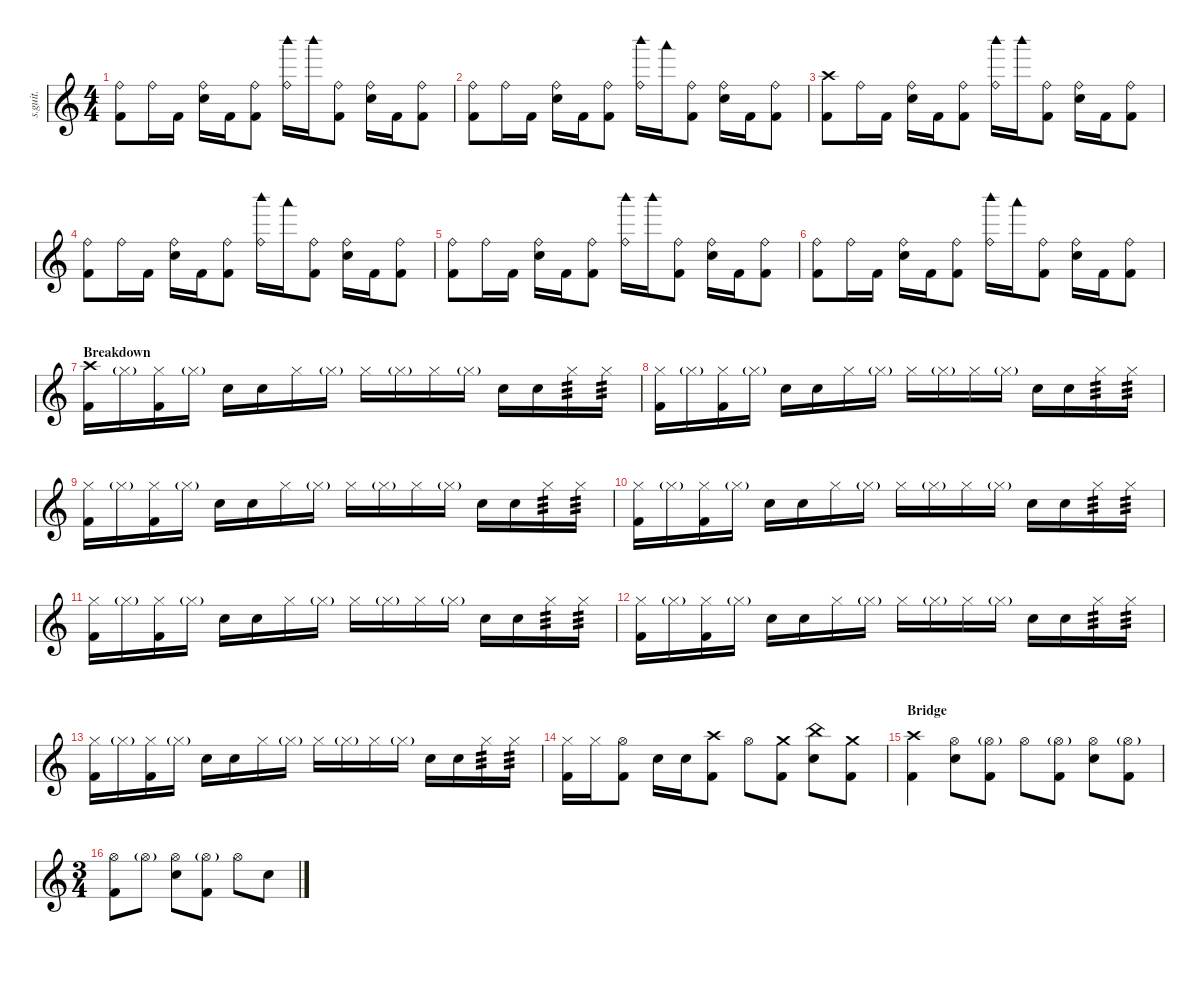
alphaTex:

\defaultSystemsLayout 4
\hideDynamics
\bracketExtendMode nobrackets
\track ("Mike Wengren" "s.guit.") {instrument percussion}
\staff {score}
\articulation defaults
\ts (4 4)
\tempo (90 hide)
\clef g2
\ks c
("Ride (bell)" "Kick (hit) 2").8{lyrics (0 "") lyrics (1 "") lyrics (2 "") lyrics (3 "") lyrics (4 "") dy ff} "Ride (bell)".16{lyrics (0 "") lyrics (1 "") lyrics (2 "") lyrics (3 "") lyrics (4 "")} "Kick (hit) 2".16{lyrics (0 "") lyrics (1 "") lyrics (2 "") lyrics (3 "") lyrics (4 "")} ("Ride (bell)" "Snare (hit) 2").16{lyrics (0 "") lyrics (1 "") lyrics (2 "") lyrics (3 "") lyrics (4 "")} "Kick (hit) 2".16{lyrics (0 "") lyrics (1 "") lyrics (2 "") lyrics (3 "") lyrics (4 "")} ("Ride (bell)" "Kick (hit) 2").8{lyrics (0 "") lyrics (1 "") lyrics (2 "") lyrics (3 "") lyrics (4 "")} ("Woodblock high (hit)" "Ride (bell)").16{lyrics (0 "") lyrics (1 "") lyrics (2 "") lyrics (3 "") lyrics (4 "")} "Woodblock high (hit)".16{lyrics (0 "") lyrics (1 "") lyrics (2 "") lyrics (3 "") lyrics (4 "")} ("Ride (bell)" "Kick (hit) 2").8{lyrics (0 "") lyrics (1 "") lyrics (2 "") lyrics (3 "") lyrics (4 "")} ("Ride (bell)" "Snare (hit) 2").16{lyrics (0 "") lyrics (1 "") lyrics (2 "") lyrics (3 "") lyrics (4 "")} "Kick (hit) 2".16{lyrics (0 "") lyrics (1 "") lyrics (2 "") lyrics (3 "") lyrics (4 "")} ("Ride (bell)" "Kick (hit) 2").8{lyrics (0 "") lyrics (1 "") lyrics (2 "") lyrics (3 "") lyrics (4 "")} |
("Ride (bell)" "Kick (hit) 2").8{lyrics (0 "") lyrics (1 "") lyrics (2 "") lyrics (3 "") lyrics (4 "")} "Ride (bell)".16{lyrics (0 "") lyrics (1 "") lyrics (2 "") lyrics (3 "") lyrics (4 "")} "Kick (hit) 2".16{lyrics (0 "") lyrics (1 "") lyrics (2 "") lyrics (3 "") lyrics (4 "")} ("Ride (bell)" "Snare (hit) 2").16{lyrics (0 "") lyrics (1 "") lyrics (2 "") lyrics (3 "") lyrics (4 "")} "Kick (hit) 2".16{lyrics (0 "") lyrics (1 "") lyrics (2 "") lyrics (3 "") lyrics (4 "")} ("Ride (bell)" "Kick (hit) 2").8{lyrics (0 "") lyrics (1 "") lyrics (2 "") lyrics (3 "") lyrics (4 "")} ("Woodblock high (hit)" "Ride (bell)").16{lyrics (0 "") lyrics (1 "") lyrics (2 "") lyrics (3 "") lyrics (4 "")} "Woodblock low (hit)".16{lyrics (0 "") lyrics (1 "") lyrics (2 "") lyrics (3 "") lyrics (4 "")} ("Ride (bell)" "Kick (hit) 2").8{lyrics (0 "") lyrics (1 "") lyrics (2 "") lyrics (3 "") lyrics (4 "")} ("Ride (bell)" "Snare (hit) 2").16{lyrics (0 "") lyrics (1 "") lyrics (2 "") lyrics (3 "") lyrics (4 "")} "Kick (hit) 2".16{lyrics (0 "") lyrics (1 "") lyrics (2 "") lyrics (3 "") lyrics (4 "")} ("Ride (bell)" "Kick (hit) 2").8{lyrics (0 "") lyrics (1 "") lyrics (2 "") lyrics (3 "") lyrics (4 "")} |
("Crash high (hit)" "Kick (hit) 2").8{lyrics (0 "") lyrics (1 "") lyrics (2 "") lyrics (3 "") lyrics (4 "")} "Ride (bell)".16{lyrics (0 "") lyrics (1 "") lyrics (2 "") lyrics (3 "") lyrics (4 "")} "Kick (hit) 2".16{lyrics (0 "") lyrics (1 "") lyrics (2 "") lyrics (3 "") lyrics (4 "")} ("Ride (bell)" "Snare (hit) 2").16{lyrics (0 "") lyrics (1 "") lyrics (2 "") lyrics (3 "") lyrics (4 "")} "Kick (hit) 2".16{lyrics (0 "") lyrics (1 "") lyrics (2 "") lyrics (3 "") lyrics (4 "")} ("Ride (bell)" "Kick (hit) 2").8{lyrics (0 "") lyrics (1 "") lyrics (2 "") lyrics (3 "") lyrics (4 "")} ("Woodblock high (hit)" "Ride (bell)").16{lyrics (0 "") lyrics (1 "") lyrics (2 "") lyrics (3 "") lyrics (4 "")} "Woodblock high (hit)".16{lyrics (0 "") lyrics (1 "") lyrics (2 "") lyrics (3 "") lyrics (4 "")} ("Ride (bell)" "Kick (hit) 2").8{lyrics (0 "") lyrics (1 "") lyrics (2 "") lyrics (3 "") lyrics (4 "")} ("Ride (bell)" "Snare (hit) 2").16{lyrics (0 "") lyrics (1 "") lyrics (2 "") lyrics (3 "") lyrics (4 "")} "Kick (hit) 2".16{lyrics (0 "") lyrics (1 "") lyrics (2 "") lyrics (3 "") lyrics (4 "")} ("Ride (bell)" "Kick (hit) 2").8{lyrics (0 "") lyrics (1 "") lyrics (2 "") lyrics (3 "") lyrics (4 "")} |
("Ride (bell)" "Kick (hit) 2").8{lyrics (0 "") lyrics (1 "") lyrics (2 "") lyrics (3 "") lyrics (4 "")} "Ride (bell)".16{lyrics (0 "") lyrics (1 "") lyrics (2 "") lyrics (3 "") lyrics (4 "")} "Kick (hit) 2".16{lyrics (0 "") lyrics (1 "") lyrics (2 "") lyrics (3 "") lyrics (4 "")} ("Ride (bell)" "Snare (hit) 2").16{lyrics (0 "") lyrics (1 "") lyrics (2 "") lyrics (3 "") lyrics (4 "")} "Kick (hit) 2".16{lyrics (0 "") lyrics (1 "") lyrics (2 "") lyrics (3 "") lyrics (4 "")} ("Ride (bell)" "Kick (hit) 2").8{lyrics (0 "") lyrics (1 "") lyrics (2 "") lyrics (3 "") lyrics (4 "")} ("Woodblock high (hit)" "Ride (bell)").16{lyrics (0 "") lyrics (1 "") lyrics (2 "") lyrics (3 "") lyrics (4 "")} "Woodblock low (hit)".16{lyrics (0 "") lyrics (1 "") lyrics (2 "") lyrics (3 "") lyrics (4 "")} ("Ride (bell)" "Kick (hit) 2").8{lyrics (0 "") lyrics (1 "") lyrics (2 "") lyrics (3 "") lyrics (4 "")} ("Ride (bell)" "Snare (hit) 2").16{lyrics (0 "") lyrics (1 "") lyrics (2 "") lyrics (3 "") lyrics (4 "")} "Kick (hit) 2".16{lyrics (0 "") lyrics (1 "") lyrics (2 "") lyrics (3 "") lyrics (4 "")} ("Ride (bell)" "Kick (hit) 2").8{lyrics (0 "") lyrics (1 "") lyrics (2 "") lyrics (3 "") lyrics (4 "")} |
("Ride (bell)" "Kick (hit) 2").8{lyrics (0 "") lyrics (1 "") lyrics (2 "") lyrics (3 "") lyrics (4 "")} "Ride (bell)".16{lyrics (0 "") lyrics (1 "") lyrics (2 "") lyrics (3 "") lyrics (4 "")} "Kick (hit) 2".16{lyrics (0 "") lyrics (1 "") lyrics (2 "") lyrics (3 "") lyrics (4 "")} ("Ride (bell)" "Snare (hit) 2").16{lyrics (0 "") lyrics (1 "") lyrics (2 "") lyrics (3 "") lyrics (4 "")} "Kick (hit) 2".16{lyrics (0 "") lyrics (1 "") lyrics (2 "") lyrics (3 "") lyrics (4 "")} ("Ride (bell)" "Kick (hit) 2").8{lyrics (0 "") lyrics (1 "") lyrics (2 "") lyrics (3 "") lyrics (4 "")} ("Woodblock high (hit)" "Ride (bell)").16{lyrics (0 "") lyrics (1 "") lyrics (2 "") lyrics (3 "") lyrics (4 "")} "Woodblock high (hit)".16{lyrics (0 "") lyrics (1 "") lyrics (2 "") lyrics (3 "") lyrics (4 "")} ("Ride (bell)" "Kick (hit) 2").8{lyrics (0 "") lyrics (1 "") lyrics (2 "") lyrics (3 "") lyrics (4 "")} ("Ride (bell)" "Snare (hit) 2").16{lyrics (0 "") lyrics (1 "") lyrics (2 "") lyrics (3 "") lyrics (4 "")} "Kick (hit) 2".16{lyrics (0 "") lyrics (1 "") lyrics (2 "") lyrics (3 "") lyrics (4 "")} ("Ride (bell)" "Kick (hit) 2").8{lyrics (0 "") lyrics (1 "") lyrics (2 "") lyrics (3 "") lyrics (4 "")} |
("Ride (bell)" "Kick (hit) 2").8{lyrics (0 "") lyrics (1 "") lyrics (2 "") lyrics (3 "") lyrics (4 "")} "Ride (bell)".16{lyrics (0 "") lyrics (1 "") lyrics (2 "") lyrics (3 "") lyrics (4 "")} "Kick (hit) 2".16{lyrics (0 "") lyrics (1 "") lyrics (2 "") lyrics (3 "") lyrics (4 "")} ("Ride (bell)" "Snare (hit) 2").16{lyrics (0 "") lyrics (1 "") lyrics (2 "") lyrics (3 "") lyrics (4 "")} "Kick (hit) 2".16{lyrics (0 "") lyrics (1 "") lyrics (2 "") lyrics (3 "") lyrics (4 "")} ("Ride (bell)" "Kick (hit) 2").8{lyrics (0 "") lyrics (1 "") lyrics (2 "") lyrics (3 "") lyrics (4 "")} ("Woodblock high (hit)" "Ride (bell)").16{lyrics (0 "") lyrics (1 "") lyrics (2 "") lyrics (3 "") lyrics (4 "")} "Woodblock low (hit)".16{lyrics (0 "") lyrics (1 "") lyrics (2 "") lyrics (3 "") lyrics (4 "")} ("Ride (bell)" "Kick (hit) 2").8{lyrics (0 "") lyrics (1 "") lyrics (2 "") lyrics (3 "") lyrics (4 "")} ("Ride (bell)" "Snare (hit) 2").16{lyrics (0 "") lyrics (1 "") lyrics (2 "") lyrics (3 "") lyrics (4 "")} "Kick (hit) 2".16{lyrics (0 "") lyrics (1 "") lyrics (2 "") lyrics (3 "") lyrics (4 "")} ("Ride (bell)" "Kick (hit) 2").8{lyrics (0 "") lyrics (1 "") lyrics (2 "") lyrics (3 "") lyrics (4 "")} |
\section ("" "Breakdown")
("Crash high (hit)" "Kick (hit) 2").16{lyrics (0 "") lyrics (1 "") lyrics (2 "") lyrics (3 "") lyrics (4 "")} "Hi-Hat (closed)"{g}.16{lyrics (0 "") lyrics (1 "") lyrics (2 "") lyrics (3 "") lyrics (4 "")} ("Hi-Hat (closed)" "Kick (hit) 2").16{lyrics (0 "") lyrics (1 "") lyrics (2 "") lyrics (3 "") lyrics (4 "")} "Hi-Hat (closed)"{g}.16{lyrics (0 "") lyrics (1 "") lyrics (2 "") lyrics (3 "") lyrics (4 "")} "Snare (hit) 2".16{lyrics (0 "") lyrics (1 "") lyrics (2 "") lyrics (3 "") lyrics (4 "")} "Snare (hit) 2".16{lyrics (0 "") lyrics (1 "") lyrics (2 "") lyrics (3 "") lyrics (4 "")} "Hi-Hat (closed)".16{lyrics (0 "") lyrics (1 "") lyrics (2 "") lyrics (3 "") lyrics (4 "")} "Hi-Hat (closed)"{g}.16{lyrics (0 "") lyrics (1 "") lyrics (2 "") lyrics (3 "") lyrics (4 "")} "Hi-Hat (closed)".16{lyrics (0 "") lyrics (1 "") lyrics (2 "") lyrics (3 "") lyrics (4 "")} "Hi-Hat (closed)"{g}.16{lyrics (0 "") lyrics (1 "") lyrics (2 "") lyrics (3 "") lyrics (4 "")} "Hi-Hat (closed)".16{lyrics (0 "") lyrics (1 "") lyrics (2 "") lyrics (3 "") lyrics (4 "")} "Hi-Hat (closed)"{g}.16{lyrics (0 "") lyrics (1 "") lyrics (2 "") lyrics (3 "") lyrics (4 "")} "Snare (hit) 2".16{lyrics (0 "") lyrics (1 "") lyrics (2 "") lyrics (3 "") lyrics (4 "")} "Snare (hit) 2".16{lyrics (0 "") lyrics (1 "") lyrics (2 "") lyrics (3 "") lyrics (4 "")} "Hi-Hat (closed)".16{lyrics (0 "") lyrics (1 "") lyrics (2 "") lyrics (3 "") lyrics (4 "") tp 3} "Hi-Hat (closed)".16{lyrics (0 "") lyrics (1 "") lyrics (2 "") lyrics (3 "") lyrics (4 "") tp 3} |
("Kick (hit) 2" "Hi-Hat (closed)").16{lyrics (0 "") lyrics (1 "") lyrics (2 "") lyrics (3 "") lyrics (4 "")} "Hi-Hat (closed)"{g}.16{lyrics (0 "") lyrics (1 "") lyrics (2 "") lyrics (3 "") lyrics (4 "")} ("Hi-Hat (closed)" "Kick (hit) 2").16{lyrics (0 "") lyrics (1 "") lyrics (2 "") lyrics (3 "") lyrics (4 "")} "Hi-Hat (closed)"{g}.16{lyrics (0 "") lyrics (1 "") lyrics (2 "") lyrics (3 "") lyrics (4 "")} "Snare (hit) 2".16{lyrics (0 "") lyrics (1 "") lyrics (2 "") lyrics (3 "") lyrics (4 "")} "Snare (hit) 2".16{lyrics (0 "") lyrics (1 "") lyrics (2 "") lyrics (3 "") lyrics (4 "")} "Hi-Hat (closed)".16{lyrics (0 "") lyrics (1 "") lyrics (2 "") lyrics (3 "") lyrics (4 "")} "Hi-Hat (closed)"{g}.16{lyrics (0 "") lyrics (1 "") lyrics (2 "") lyrics (3 "") lyrics (4 "")} "Hi-Hat (closed)".16{lyrics (0 "") lyrics (1 "") lyrics (2 "") lyrics (3 "") lyrics (4 "")} "Hi-Hat (closed)"{g}.16{lyrics (0 "") lyrics (1 "") lyrics (2 "") lyrics (3 "") lyrics (4 "")} "Hi-Hat (closed)".16{lyrics (0 "") lyrics (1 "") lyrics (2 "") lyrics (3 "") lyrics (4 "")} "Hi-Hat (closed)"{g}.16{lyrics (0 "") lyrics (1 "") lyrics (2 "") lyrics (3 "") lyrics (4 "")} "Snare (hit) 2".16{lyrics (0 "") lyrics (1 "") lyrics (2 "") lyrics (3 "") lyrics (4 "")} "Snare (hit) 2".16{lyrics (0 "") lyrics (1 "") lyrics (2 "") lyrics (3 "") lyrics (4 "")} "Hi-Hat (closed)".16{lyrics (0 "") lyrics (1 "") lyrics (2 "") lyrics (3 "") lyrics (4 "") tp 3} "Hi-Hat (closed)".16{lyrics (0 "") lyrics (1 "") lyrics (2 "") lyrics (3 "") lyrics (4 "") tp 3} |
("Kick (hit) 2" "Hi-Hat (closed)").16{lyrics (0 "") lyrics (1 "") lyrics (2 "") lyrics (3 "") lyrics (4 "")} "Hi-Hat (closed)"{g}.16{lyrics (0 "") lyrics (1 "") lyrics (2 "") lyrics (3 "") lyrics (4 "")} ("Hi-Hat (closed)" "Kick (hit) 2").16{lyrics (0 "") lyrics (1 "") lyrics (2 "") lyrics (3 "") lyrics (4 "")} "Hi-Hat (closed)"{g}.16{lyrics (0 "") lyrics (1 "") lyrics (2 "") lyrics (3 "") lyrics (4 "")} "Snare (hit) 2".16{lyrics (0 "") lyrics (1 "") lyrics (2 "") lyrics (3 "") lyrics (4 "")} "Snare (hit) 2".16{lyrics (0 "") lyrics (1 "") lyrics (2 "") lyrics (3 "") lyrics (4 "")} "Hi-Hat (closed)".16{lyrics (0 "") lyrics (1 "") lyrics (2 "") lyrics (3 "") lyrics (4 "")} "Hi-Hat (closed)"{g}.16{lyrics (0 "") lyrics (1 "") lyrics (2 "") lyrics (3 "") lyrics (4 "")} "Hi-Hat (closed)".16{lyrics (0 "") lyrics (1 "") lyrics (2 "") lyrics (3 "") lyrics (4 "")} "Hi-Hat (closed)"{g}.16{lyrics (0 "") lyrics (1 "") lyrics (2 "") lyrics (3 "") lyrics (4 "")} "Hi-Hat (closed)".16{lyrics (0 "") lyrics (1 "") lyrics (2 "") lyrics (3 "") lyrics (4 "")} "Hi-Hat (closed)"{g}.16{lyrics (0 "") lyrics (1 "") lyrics (2 "") lyrics (3 "") lyrics (4 "")} "Snare (hit) 2".16{lyrics (0 "") lyrics (1 "") lyrics (2 "") lyrics (3 "") lyrics (4 "")} "Snare (hit) 2".16{lyrics (0 "") lyrics (1 "") lyrics (2 "") lyrics (3 "") lyrics (4 "")} "Hi-Hat (closed)".16{lyrics (0 "") lyrics (1 "") lyrics (2 "") lyrics (3 "") lyrics (4 "") tp 3} "Hi-Hat (closed)".16{lyrics (0 "") lyrics (1 "") lyrics (2 "") lyrics (3 "") lyrics (4 "") tp 3} |
("Kick (hit) 2" "Hi-Hat (closed)").16{lyrics (0 "") lyrics (1 "") lyrics (2 "") lyrics (3 "") lyrics (4 "")} "Hi-Hat (closed)"{g}.16{lyrics (0 "") lyrics (1 "") lyrics (2 "") lyrics (3 "") lyrics (4 "")} ("Hi-Hat (closed)" "Kick (hit) 2").16{lyrics (0 "") lyrics (1 "") lyrics (2 "") lyrics (3 "") lyrics (4 "")} "Hi-Hat (closed)"{g}.16{lyrics (0 "") lyrics (1 "") lyrics (2 "") lyrics (3 "") lyrics (4 "")} "Snare (hit) 2".16{lyrics (0 "") lyrics (1 "") lyrics (2 "") lyrics (3 "") lyrics (4 "")} "Snare (hit) 2".16{lyrics (0 "") lyrics (1 "") lyrics (2 "") lyrics (3 "") lyrics (4 "")} "Hi-Hat (closed)".16{lyrics (0 "") lyrics (1 "") lyrics (2 "") lyrics (3 "") lyrics (4 "")} "Hi-Hat (closed)"{g}.16{lyrics (0 "") lyrics (1 "") lyrics (2 "") lyrics (3 "") lyrics (4 "")} "Hi-Hat (closed)".16{lyrics (0 "") lyrics (1 "") lyrics (2 "") lyrics (3 "") lyrics (4 "")} "Hi-Hat (closed)"{g}.16{lyrics (0 "") lyrics (1 "") lyrics (2 "") lyrics (3 "") lyrics (4 "")} "Hi-Hat (closed)".16{lyrics (0 "") lyrics (1 "") lyrics (2 "") lyrics (3 "") lyrics (4 "")} "Hi-Hat (closed)"{g}.16{lyrics (0 "") lyrics (1 "") lyrics (2 "") lyrics (3 "") lyrics (4 "")} "Snare (hit) 2".16{lyrics (0 "") lyrics (1 "") lyrics (2 "") lyrics (3 "") lyrics (4 "")} "Snare (hit) 2".16{lyrics (0 "") lyrics (1 "") lyrics (2 "") lyrics (3 "") lyrics (4 "")} "Hi-Hat (closed)".16{lyrics (0 "") lyrics (1 "") lyrics (2 "") lyrics (3 "") lyrics (4 "") tp 3} "Hi-Hat (closed)".16{lyrics (0 "") lyrics (1 "") lyrics (2 "") lyrics (3 "") lyrics (4 "") tp 3} |
("Kick (hit) 2" "Hi-Hat (closed)").16{lyrics (0 "") lyrics (1 "") lyrics (2 "") lyrics (3 "") lyrics (4 "")} "Hi-Hat (closed)"{g}.16{lyrics (0 "") lyrics (1 "") lyrics (2 "") lyrics (3 "") lyrics (4 "")} ("Hi-Hat (closed)" "Kick (hit) 2").16{lyrics (0 "") lyrics (1 "") lyrics (2 "") lyrics (3 "") lyrics (4 "")} "Hi-Hat (closed)"{g}.16{lyrics (0 "") lyrics (1 "") lyrics (2 "") lyrics (3 "") lyrics (4 "")} "Snare (hit) 2".16{lyrics (0 "") lyrics (1 "") lyrics (2 "") lyrics (3 "") lyrics (4 "")} "Snare (hit) 2".16{lyrics (0 "") lyrics (1 "") lyrics (2 "") lyrics (3 "") lyrics (4 "")} "Hi-Hat (closed)".16{lyrics (0 "") lyrics (1 "") lyrics (2 "") lyrics (3 "") lyrics (4 "")} "Hi-Hat (closed)"{g}.16{lyrics (0 "") lyrics (1 "") lyrics (2 "") lyrics (3 "") lyrics (4 "")} "Hi-Hat (closed)".16{lyrics (0 "") lyrics (1 "") lyrics (2 "") lyrics (3 "") lyrics (4 "")} "Hi-Hat (closed)"{g}.16{lyrics (0 "") lyrics (1 "") lyrics (2 "") lyrics (3 "") lyrics (4 "")} "Hi-Hat (closed)".16{lyrics (0 "") lyrics (1 "") lyrics (2 "") lyrics (3 "") lyrics (4 "")} "Hi-Hat (closed)"{g}.16{lyrics (0 "") lyrics (1 "") lyrics (2 "") lyrics (3 "") lyrics (4 "")} "Snare (hit) 2".16{lyrics (0 "") lyrics (1 "") lyrics (2 "") lyrics (3 "") lyrics (4 "")} "Snare (hit) 2".16{lyrics (0 "") lyrics (1 "") lyrics (2 "") lyrics (3 "") lyrics (4 "")} "Hi-Hat (closed)".16{lyrics (0 "") lyrics (1 "") lyrics (2 "") lyrics (3 "") lyrics (4 "") tp 3} "Hi-Hat (closed)".16{lyrics (0 "") lyrics (1 "") lyrics (2 "") lyrics (3 "") lyrics (4 "") tp 3} |
("Kick (hit) 2" "Hi-Hat (closed)").16{lyrics (0 "") lyrics (1 "") lyrics (2 "") lyrics (3 "") lyrics (4 "")} "Hi-Hat (closed)"{g}.16{lyrics (0 "") lyrics (1 "") lyrics (2 "") lyrics (3 "") lyrics (4 "")} ("Hi-Hat (closed)" "Kick (hit) 2").16{lyrics (0 "") lyrics (1 "") lyrics (2 "") lyrics (3 "") lyrics (4 "")} "Hi-Hat (closed)"{g}.16{lyrics (0 "") lyrics (1 "") lyrics (2 "") lyrics (3 "") lyrics (4 "")} "Snare (hit) 2".16{lyrics (0 "") lyrics (1 "") lyrics (2 "") lyrics (3 "") lyrics (4 "")} "Snare (hit) 2".16{lyrics (0 "") lyrics (1 "") lyrics (2 "") lyrics (3 "") lyrics (4 "")} "Hi-Hat (closed)".16{lyrics (0 "") lyrics (1 "") lyrics (2 "") lyrics (3 "") lyrics (4 "")} "Hi-Hat (closed)"{g}.16{lyrics (0 "") lyrics (1 "") lyrics (2 "") lyrics (3 "") lyrics (4 "")} "Hi-Hat (closed)".16{lyrics (0 "") lyrics (1 "") lyrics (2 "") lyrics (3 "") lyrics (4 "")} "Hi-Hat (closed)"{g}.16{lyrics (0 "") lyrics (1 "") lyrics (2 "") lyrics (3 "") lyrics (4 "")} "Hi-Hat (closed)".16{lyrics (0 "") lyrics (1 "") lyrics (2 "") lyrics (3 "") lyrics (4 "")} "Hi-Hat (closed)"{g}.16{lyrics (0 "") lyrics (1 "") lyrics (2 "") lyrics (3 "") lyrics (4 "")} "Snare (hit) 2".16{lyrics (0 "") lyrics (1 "") lyrics (2 "") lyrics (3 "") lyrics (4 "")} "Snare (hit) 2".16{lyrics (0 "") lyrics (1 "") lyrics (2 "") lyrics (3 "") lyrics (4 "")} "Hi-Hat (closed)".16{lyrics (0 "") lyrics (1 "") lyrics (2 "") lyrics (3 "") lyrics (4 "") tp 3} "Hi-Hat (closed)".16{lyrics (0 "") lyrics (1 "") lyrics (2 "") lyrics (3 "") lyrics (4 "") tp 3} |
("Kick (hit) 2" "Hi-Hat (closed)").16{lyrics (0 "") lyrics (1 "") lyrics (2 "") lyrics (3 "") lyrics (4 "")} "Hi-Hat (closed)"{g}.16{lyrics (0 "") lyrics (1 "") lyrics (2 "") lyrics (3 "") lyrics (4 "")} ("Hi-Hat (closed)" "Kick (hit) 2").16{lyrics (0 "") lyrics (1 "") lyrics (2 "") lyrics (3 "") lyrics (4 "")} "Hi-Hat (closed)"{g}.16{lyrics (0 "") lyrics (1 "") lyrics (2 "") lyrics (3 "") lyrics (4 "")} "Snare (hit) 2".16{lyrics (0 "") lyrics (1 "") lyrics (2 "") lyrics (3 "") lyrics (4 "")} "Snare (hit) 2".16{lyrics (0 "") lyrics (1 "") lyrics (2 "") lyrics (3 "") lyrics (4 "")} "Hi-Hat (closed)".16{lyrics (0 "") lyrics (1 "") lyrics (2 "") lyrics (3 "") lyrics (4 "")} "Hi-Hat (closed)"{g}.16{lyrics (0 "") lyrics (1 "") lyrics (2 "") lyrics (3 "") lyrics (4 "")} "Hi-Hat (closed)".16{lyrics (0 "") lyrics (1 "") lyrics (2 "") lyrics (3 "") lyrics (4 "")} "Hi-Hat (closed)"{g}.16{lyrics (0 "") lyrics (1 "") lyrics (2 "") lyrics (3 "") lyrics (4 "")} "Hi-Hat (closed)".16{lyrics (0 "") lyrics (1 "") lyrics (2 "") lyrics (3 "") lyrics (4 "")} "Hi-Hat (closed)"{g}.16{lyrics (0 "") lyrics (1 "") lyrics (2 "") lyrics (3 "") lyrics (4 "")} "Snare (hit) 2".16{lyrics (0 "") lyrics (1 "") lyrics (2 "") lyrics (3 "") lyrics (4 "")} "Snare (hit) 2".16{lyrics (0 "") lyrics (1 "") lyrics (2 "") lyrics (3 "") lyrics (4 "")} "Hi-Hat (closed)".16{lyrics (0 "") lyrics (1 "") lyrics (2 "") lyrics (3 "") lyrics (4 "") tp 3} "Hi-Hat (closed)".16{lyrics (0 "") lyrics (1 "") lyrics (2 "") lyrics (3 "") lyrics (4 "") tp 3} |
("Hi-Hat (closed)" "Kick (hit) 2").16{lyrics (0 "") lyrics (1 "") lyrics (2 "") lyrics (3 "") lyrics (4 "")} "Hi-Hat (closed)".16{lyrics (0 "") lyrics (1 "") lyrics (2 "") lyrics (3 "") lyrics (4 "")} ("Hi-Hat (open)" "Kick (hit) 2").8{lyrics (0 "") lyrics (1 "") lyrics (2 "") lyrics (3 "") lyrics (4 "")} "Snare (hit) 2".16{lyrics (0 "") lyrics (1 "") lyrics (2 "") lyrics (3 "") lyrics (4 "")} "Snare (hit) 2".16{lyrics (0 "") lyrics (1 "") lyrics (2 "") lyrics (3 "") lyrics (4 "")} ("Kick (hit) 2" "Crash high (hit)").8{lyrics (0 "") lyrics (1 "") lyrics (2 "") lyrics (3 "") lyrics (4 "")} "Hi-Hat (open)".8{lyrics (0 "") lyrics (1 "") lyrics (2 "") lyrics (3 "") lyrics (4 "")} ("Kick (hit) 2" "Crash medium (hit)").8{lyrics (0 "") lyrics (1 "") lyrics (2 "") lyrics (3 "") lyrics (4 "")} ("China (hit)" "Snare (hit) 2").8{lyrics (0 "") lyrics (1 "") lyrics (2 "") lyrics (3 "") lyrics (4 "")} ("Kick (hit) 2" "Crash medium (hit)").8{lyrics (0 "") lyrics (1 "") lyrics (2 "") lyrics (3 "") lyrics (4 "")} |
\section ("" "Bridge")
("Crash high (hit)" "Kick (hit) 2").4{lyrics (0 "") lyrics (1 "") lyrics (2 "") lyrics (3 "") lyrics (4 "")} ("Hi-Hat (open)" "Snare (hit) 2").8{lyrics (0 "") lyrics (1 "") lyrics (2 "") lyrics (3 "") lyrics (4 "")} ("Kick (hit) 2" "Hi-Hat (open)"{g}).8{lyrics (0 "") lyrics (1 "") lyrics (2 "") lyrics (3 "") lyrics (4 "")} "Hi-Hat (open)".8{lyrics (0 "") lyrics (1 "") lyrics (2 "") lyrics (3 "") lyrics (4 "")} ("Kick (hit) 2" "Hi-Hat (open)"{g}).8{lyrics (0 "") lyrics (1 "") lyrics (2 "") lyrics (3 "") lyrics (4 "")} ("Hi-Hat (open)" "Snare (hit) 2").8{lyrics (0 "") lyrics (1 "") lyrics (2 "") lyrics (3 "") lyrics (4 "")} ("Kick (hit) 2" "Hi-Hat (open)"{g}).8{lyrics (0 "") lyrics (1 "") lyrics (2 "") lyrics (3 "") lyrics (4 "")} |
\ts (3 4)
\beaming (8 2 2 2 2)
("Hi-Hat (open)" "Kick (hit) 2").8{lyrics (0 "") lyrics (1 "") lyrics (2 "") lyrics (3 "") lyrics (4 "")} "Hi-Hat (open)"{g}.8{lyrics (0 "") lyrics (1 "") lyrics (2 "") lyrics (3 "") lyrics (4 "")} ("Hi-Hat (open)" "Snare (hit) 2").8{lyrics (0 "") lyrics (1 "") lyrics (2 "") lyrics (3 "") lyrics (4 "")} ("Kick (hit) 2" "Hi-Hat (open)"{g}).8{lyrics (0 "") lyrics (1 "") lyrics (2 "") lyrics (3 "") lyrics (4 "")} "Hi-Hat (open)".8{lyrics (0 "") lyrics (1 "") lyrics (2 "") lyrics (3 "") lyrics (4 "")} "Snare (hit) 2".8{lyrics (0 "") lyrics (1 "") lyrics (2 "") lyrics (3 "") lyrics (4 "")}
